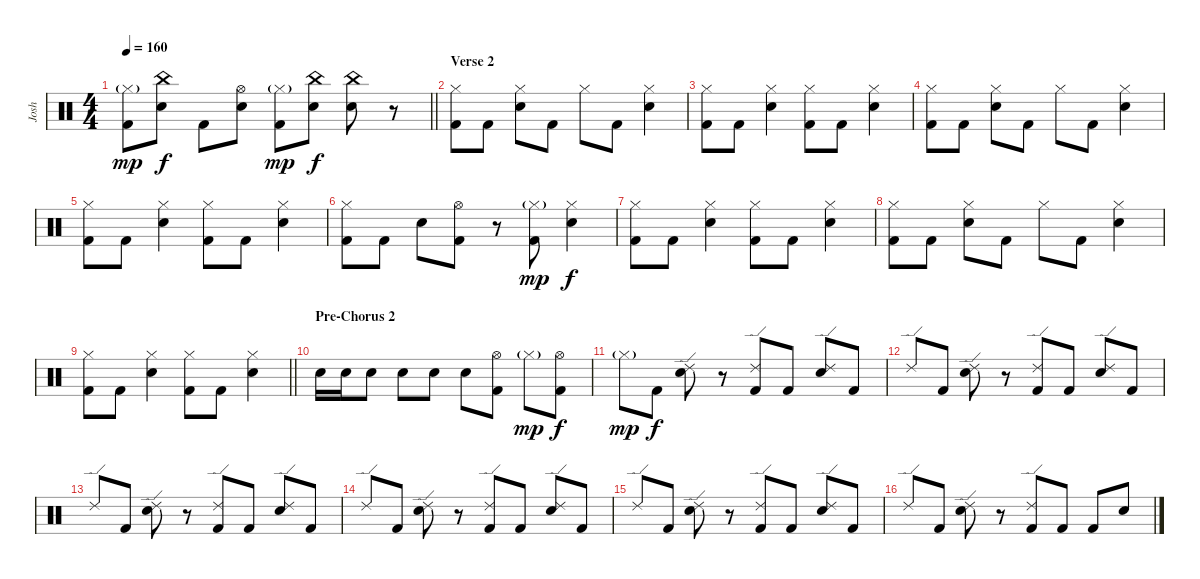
\track ("Josh" "Josh") {instrument percussion}
\staff {score}
\articulation defaults
\ts (4 4)
\tempo 160
\clef neutral
\barLineRight lightlight
\ks c
("Hi-Hat (closed)"{g} "Kick (hit) 2").8{dy mp} ("China (hit)" "Electric Snare (hit)").8{dy f} "Kick (hit) 2".8 ("Hi-Hat (open)" "Electric Snare (hit)").8 ("Hi-Hat (closed)"{g} "Kick (hit) 2").8{dy mp} ("China (hit)" "Electric Snare (hit)").8{dy f} ("China (hit)" "Electric Snare (hit)").8 r.8 |
\section ("" "Verse 2")
("Hi-Hat (closed)" "Kick (hit) 2").8 "Kick (hit) 2".8 ("Hi-Hat (closed)" "Electric Snare (hit)").8 "Kick (hit) 2".8 "Hi-Hat (closed)".8 "Kick (hit) 2".8 ("Hi-Hat (closed)" "Electric Snare (hit)").4 |
("Hi-Hat (closed)" "Kick (hit) 2").8 "Kick (hit) 2".8 ("Hi-Hat (closed)" "Electric Snare (hit)").4 ("Hi-Hat (closed)" "Kick (hit) 2").8 "Kick (hit) 2".8 ("Hi-Hat (closed)" "Electric Snare (hit)").4 |
("Hi-Hat (closed)" "Kick (hit) 2").8 "Kick (hit) 2".8 ("Hi-Hat (closed)" "Electric Snare (hit)").8 "Kick (hit) 2".8 "Hi-Hat (closed)".8 "Kick (hit) 2".8 ("Hi-Hat (closed)" "Electric Snare (hit)").4 |
("Hi-Hat (closed)" "Kick (hit) 2").8 "Kick (hit) 2".8 ("Hi-Hat (closed)" "Electric Snare (hit)").4 ("Hi-Hat (closed)" "Kick (hit) 2").8 "Kick (hit) 2".8 ("Hi-Hat (closed)" "Electric Snare (hit)").4 |
("Hi-Hat (closed)" "Kick (hit) 2").8 "Kick (hit) 2".8 "Electric Snare (hit)".8 ("Hi-Hat (open)" "Kick (hit) 2").8 r.8 ("Hi-Hat (closed)"{g} "Kick (hit) 2").8{dy mp} ("Hi-Hat (closed)" "Electric Snare (hit)").4{dy f} |
("Hi-Hat (closed)" "Kick (hit) 2").8 "Kick (hit) 2".8 ("Hi-Hat (closed)" "Electric Snare (hit)").4 ("Hi-Hat (closed)" "Kick (hit) 2").8 "Kick (hit) 2".8 ("Hi-Hat (closed)" "Electric Snare (hit)").4 |
("Hi-Hat (closed)" "Kick (hit) 2").8 "Kick (hit) 2".8 ("Hi-Hat (closed)" "Electric Snare (hit)").8 "Kick (hit) 2".8 "Hi-Hat (closed)".8 "Kick (hit) 2".8 ("Hi-Hat (closed)" "Electric Snare (hit)").4 |
\barLineRight lightlight
("Hi-Hat (closed)" "Kick (hit) 2").8 "Kick (hit) 2".8 ("Hi-Hat (closed)" "Electric Snare (hit)").4 ("Hi-Hat (closed)" "Kick (hit) 2").8 "Kick (hit) 2".8 ("Hi-Hat (closed)" "Electric Snare (hit)").4 |
\section ("" "Pre-Chorus 2")
"Electric Snare (hit)".16 "Electric Snare (hit)".16 "Electric Snare (hit)".8 "Electric Snare (hit)".8 "Electric Snare (hit)".8 "Electric Snare (hit)".8 ("Hi-Hat (open)" "Kick (hit) 2").8 "Hi-Hat (closed)"{g}.8{dy mp} ("Hi-Hat (open)" "Kick (hit) 2").8{dy f} |
"Hi-Hat (closed)"{g}.8{dy mp} "Kick (hit) 2".8{dy f} ("Ride (edge) 2" "Electric Snare (hit)").8 r.8 ("Ride (edge) 2" "Kick (hit) 2").8 "Kick (hit) 2".8 ("Ride (edge) 2" "Electric Snare (hit)").8 "Kick (hit) 2".8 |
"Ride (edge) 2".8 "Kick (hit) 2".8 ("Ride (edge) 2" "Electric Snare (hit)").8 r.8 ("Ride (edge) 2" "Kick (hit) 2").8 "Kick (hit) 2".8 ("Ride (edge) 2" "Electric Snare (hit)").8 "Kick (hit) 2".8 |
"Ride (edge) 2".8 "Kick (hit) 2".8 ("Ride (edge) 2" "Electric Snare (hit)").8 r.8 ("Ride (edge) 2" "Kick (hit) 2").8 "Kick (hit) 2".8 ("Ride (edge) 2" "Electric Snare (hit)").8 "Kick (hit) 2".8 |
"Ride (edge) 2".8 "Kick (hit) 2".8 ("Ride (edge) 2" "Electric Snare (hit)").8 r.8 ("Ride (edge) 2" "Kick (hit) 2").8 "Kick (hit) 2".8 ("Ride (edge) 2" "Electric Snare (hit)").8 "Kick (hit) 2".8 |
"Ride (edge) 2".8 "Kick (hit) 2".8 ("Ride (edge) 2" "Electric Snare (hit)").8 r.8 ("Ride (edge) 2" "Kick (hit) 2").8 "Kick (hit) 2".8 ("Ride (edge) 2" "Electric Snare (hit)").8 "Kick (hit) 2".8 |
"Ride (edge) 2".8 "Kick (hit) 2".8 ("Ride (edge) 2" "Electric Snare (hit)").8 r.8 ("Ride (edge) 2" "Kick (hit) 2").8 "Kick (hit) 2".8 "Kick (hit) 2".8 "Electric Snare (hit)".8
